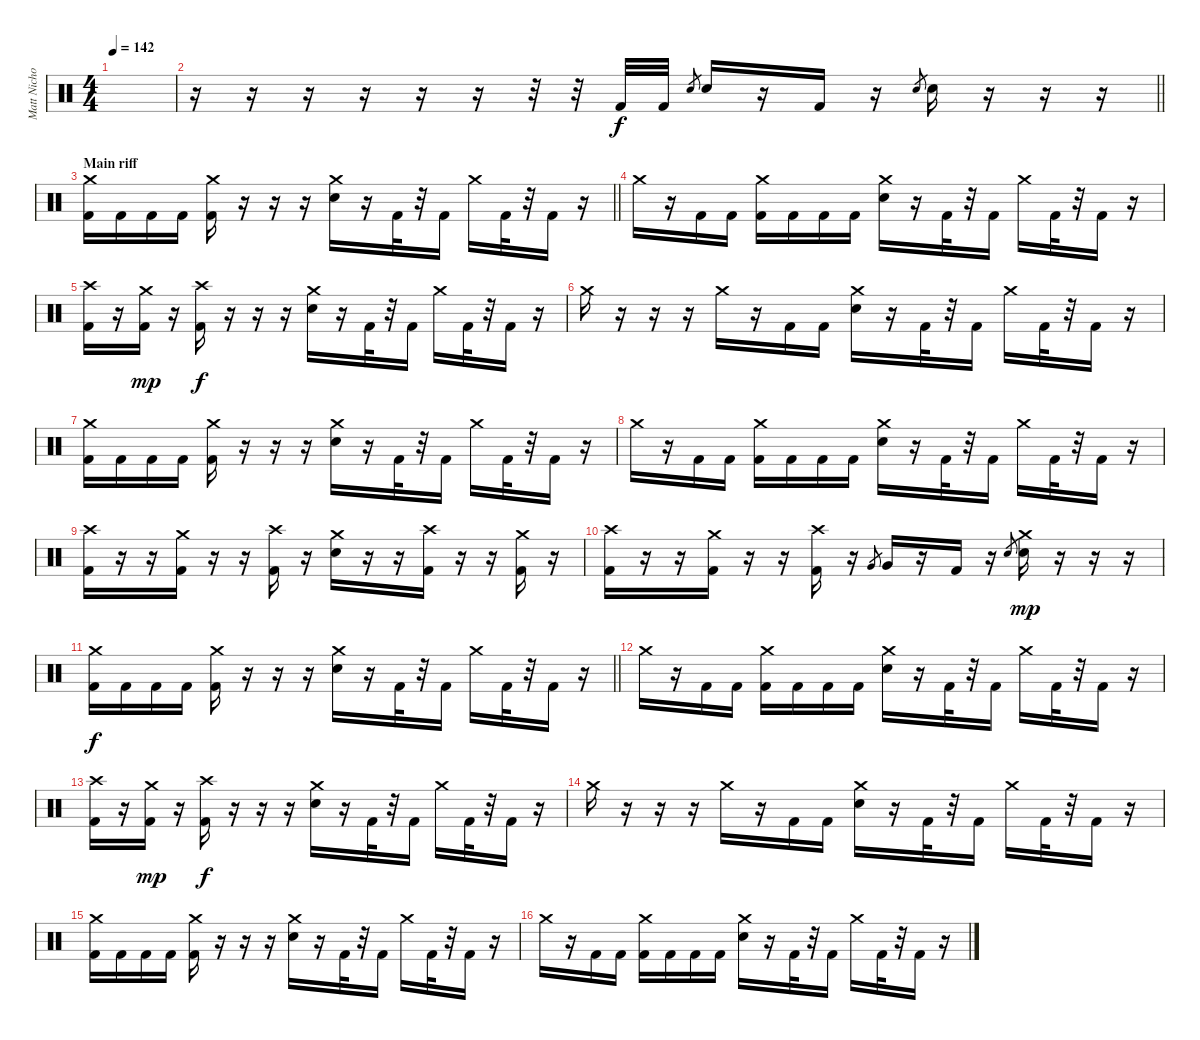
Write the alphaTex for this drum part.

\track ("Matt Nicholls" "Matt Nicho") {instrument percussion}
\staff {score}
\articulation defaults
\ts (4 4)
\tempo 142
\clef neutral
\ks c
|
\barLineRight lightlight
r.16 r.16 r.16 r.16 r.16 r.16 r.32 r.32 "Kick (hit) 2".32{dy f} "Kick (hit) 2".32 "Electric Snare (hit)".8{gr} "Electric Snare (hit)".16 r.16 "Kick (hit) 2".16 r.16 "Electric Snare (hit)".8{gr} "Electric Snare (hit)".16 r.16 r.16 r.16 |
\section ("" "Main riff")
\barLineRight lightlight
("Crash medium (hit)" "Kick (hit) 2").16 "Kick (hit) 2".16 "Kick (hit) 2".16 "Kick (hit) 2".16 ("Crash medium (hit)" "Kick (hit) 2").16 r.16 r.16 r.16 ("Crash medium (hit)" "Electric Snare (hit)").16 r.16 "Kick (hit) 2".32 r.32 "Kick (hit) 2".16 "Crash medium (hit)".16 "Kick (hit) 2".32 r.32 "Kick (hit) 2".16 r.16 |
"Crash medium (hit)".16 r.16 "Kick (hit) 2".16 "Kick (hit) 2".16 ("Crash medium (hit)" "Kick (hit) 2").16 "Kick (hit) 2".16 "Kick (hit) 2".16 "Kick (hit) 2".16 ("Crash medium (hit)" "Electric Snare (hit)").16 r.16 "Kick (hit) 2".32 r.32 "Kick (hit) 2".16 "Crash medium (hit)".16 "Kick (hit) 2".32 r.32 "Kick (hit) 2".16 r.16 |
("Crash high (hit)" "Kick (hit) 2").16 r.16 ("Crash medium (hit)" "Kick (hit) 2").16{dy mp} r.16 ("Crash high (hit)" "Kick (hit) 2").16{dy f} r.16 r.16 r.16 ("Crash medium (hit)" "Electric Snare (hit)").16 r.16 "Kick (hit) 2".32 r.32 "Kick (hit) 2".16 "Crash medium (hit)".16 "Kick (hit) 2".32 r.32 "Kick (hit) 2".16 r.16 |
"Crash medium (hit)".16 r.16 r.16 r.16 "Crash medium (hit)".16 r.16 "Kick (hit) 2".16 "Kick (hit) 2".16 ("Crash medium (hit)" "Electric Snare (hit)").16 r.16 "Kick (hit) 2".32 r.32 "Kick (hit) 2".16 "Crash medium (hit)".16 "Kick (hit) 2".32 r.32 "Kick (hit) 2".16 r.16 |
("Crash medium (hit)" "Kick (hit) 2").16 "Kick (hit) 2".16 "Kick (hit) 2".16 "Kick (hit) 2".16 ("Crash medium (hit)" "Kick (hit) 2").16 r.16 r.16 r.16 ("Crash medium (hit)" "Electric Snare (hit)").16 r.16 "Kick (hit) 2".32 r.32 "Kick (hit) 2".16 "Crash medium (hit)".16 "Kick (hit) 2".32 r.32 "Kick (hit) 2".16 r.16 |
"Crash medium (hit)".16 r.16 "Kick (hit) 2".16 "Kick (hit) 2".16 ("Crash medium (hit)" "Kick (hit) 2").16 "Kick (hit) 2".16 "Kick (hit) 2".16 "Kick (hit) 2".16 ("Crash medium (hit)" "Electric Snare (hit)").16 r.16 "Kick (hit) 2".32 r.32 "Kick (hit) 2".16 "Crash medium (hit)".16 "Kick (hit) 2".32 r.32 "Kick (hit) 2".16 r.16 |
("Crash high (hit)" "Kick (hit) 2").16 r.16 r.16 ("Crash medium (hit)" "Kick (hit) 2").16 r.16 r.16 ("Crash high (hit)" "Kick (hit) 2").16 r.16 ("Crash medium (hit)" "Electric Snare (hit)").16 r.16 r.16 ("Crash high (hit)" "Kick (hit) 2").16 r.16 r.16 ("Crash medium (hit)" "Kick (hit) 2").16 r.16 |
("Crash high (hit)" "Kick (hit) 2").16 r.16 r.16 ("Crash medium (hit)" "Kick (hit) 2").16 r.16 r.16 ("Crash high (hit)" "Kick (hit) 2").16 r.16 "Very Low Tom (hit)".8{gr} "Very Low Tom (hit)".16 r.16 "Kick (hit) 2".16 r.16 "Electric Snare (hit)".8{gr} ("Crash medium (hit)" "Electric Snare (hit)").16{dy mp} r.16 r.16 r.16 |
\barLineRight lightlight
("Crash medium (hit)" "Kick (hit) 2").16{dy f} "Kick (hit) 2".16 "Kick (hit) 2".16 "Kick (hit) 2".16 ("Crash medium (hit)" "Kick (hit) 2").16 r.16 r.16 r.16 ("Crash medium (hit)" "Electric Snare (hit)").16 r.16 "Kick (hit) 2".32 r.32 "Kick (hit) 2".16 "Crash medium (hit)".16 "Kick (hit) 2".32 r.32 "Kick (hit) 2".16 r.16 |
"Crash medium (hit)".16 r.16 "Kick (hit) 2".16 "Kick (hit) 2".16 ("Crash medium (hit)" "Kick (hit) 2").16 "Kick (hit) 2".16 "Kick (hit) 2".16 "Kick (hit) 2".16 ("Crash medium (hit)" "Electric Snare (hit)").16 r.16 "Kick (hit) 2".32 r.32 "Kick (hit) 2".16 "Crash medium (hit)".16 "Kick (hit) 2".32 r.32 "Kick (hit) 2".16 r.16 |
("Crash high (hit)" "Kick (hit) 2").16 r.16 ("Crash medium (hit)" "Kick (hit) 2").16{dy mp} r.16 ("Crash high (hit)" "Kick (hit) 2").16{dy f} r.16 r.16 r.16 ("Crash medium (hit)" "Electric Snare (hit)").16 r.16 "Kick (hit) 2".32 r.32 "Kick (hit) 2".16 "Crash medium (hit)".16 "Kick (hit) 2".32 r.32 "Kick (hit) 2".16 r.16 |
"Crash medium (hit)".16 r.16 r.16 r.16 "Crash medium (hit)".16 r.16 "Kick (hit) 2".16 "Kick (hit) 2".16 ("Crash medium (hit)" "Electric Snare (hit)").16 r.16 "Kick (hit) 2".32 r.32 "Kick (hit) 2".16 "Crash medium (hit)".16 "Kick (hit) 2".32 r.32 "Kick (hit) 2".16 r.16 |
("Crash medium (hit)" "Kick (hit) 2").16 "Kick (hit) 2".16 "Kick (hit) 2".16 "Kick (hit) 2".16 ("Crash medium (hit)" "Kick (hit) 2").16 r.16 r.16 r.16 ("Crash medium (hit)" "Electric Snare (hit)").16 r.16 "Kick (hit) 2".32 r.32 "Kick (hit) 2".16 "Crash medium (hit)".16 "Kick (hit) 2".32 r.32 "Kick (hit) 2".16 r.16 |
"Crash medium (hit)".16 r.16 "Kick (hit) 2".16 "Kick (hit) 2".16 ("Crash medium (hit)" "Kick (hit) 2").16 "Kick (hit) 2".16 "Kick (hit) 2".16 "Kick (hit) 2".16 ("Crash medium (hit)" "Electric Snare (hit)").16 r.16 "Kick (hit) 2".32 r.32 "Kick (hit) 2".16 "Crash medium (hit)".16 "Kick (hit) 2".32 r.32 "Kick (hit) 2".16 r.16
